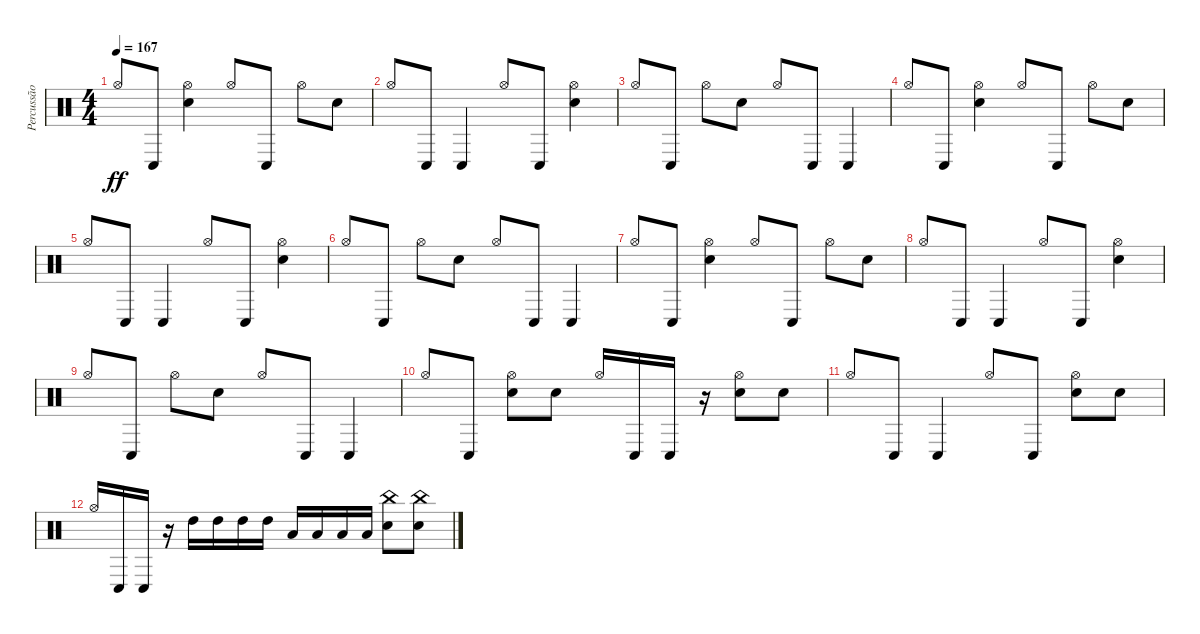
\track ("Percussão" "Percussão") {instrument percussion}
\staff {score}
\articulation defaults
\ts (4 4)
\tempo 167
\clef neutral
\ks c "Hi-Hat (open)".8{dy ff} "Conga low (hit)".8
("Electric Snare (hit)" "Hi-Hat (open)").4 "Hi-Hat (open)".8 "Conga low (hit)".8 "Hi-Hat (open)".8 "Electric Snare (hit)".8 |
"Hi-Hat (open)".8 "Conga low (hit)".8 "Conga low (hit)".4 "Hi-Hat (open)".8 "Conga low (hit)".8 ("Electric Snare (hit)" "Hi-Hat (open)").4 |
"Hi-Hat (open)".8 "Conga low (hit)".8 "Hi-Hat (open)".8 "Electric Snare (hit)".8 "Hi-Hat (open)".8 "Conga low (hit)".8 "Conga low (hit)".4 |
"Hi-Hat (open)".8 "Conga low (hit)".8 ("Electric Snare (hit)" "Hi-Hat (open)").4 "Hi-Hat (open)".8 "Conga low (hit)".8 "Hi-Hat (open)".8 "Electric Snare (hit)".8 |
"Hi-Hat (open)".8 "Conga low (hit)".8 "Conga low (hit)".4 "Hi-Hat (open)".8 "Conga low (hit)".8 ("Electric Snare (hit)" "Hi-Hat (open)").4 |
"Hi-Hat (open)".8 "Conga low (hit)".8 "Hi-Hat (open)".8 "Electric Snare (hit)".8 "Hi-Hat (open)".8 "Conga low (hit)".8 "Conga low (hit)".4 |
"Hi-Hat (open)".8 "Conga low (hit)".8 ("Electric Snare (hit)" "Hi-Hat (open)").4 "Hi-Hat (open)".8 "Conga low (hit)".8 "Hi-Hat (open)".8 "Electric Snare (hit)".8 |
"Hi-Hat (open)".8 "Conga low (hit)".8 "Conga low (hit)".4 "Hi-Hat (open)".8 "Conga low (hit)".8 ("Electric Snare (hit)" "Hi-Hat (open)").4 |
"Hi-Hat (open)".8 "Conga low (hit)".8 "Hi-Hat (open)".8 "Electric Snare (hit)".8 "Hi-Hat (open)".8 "Conga low (hit)".8 "Conga low (hit)".4 |
"Hi-Hat (open)".8 "Conga low (hit)".8 ("Electric Snare (hit)" "Hi-Hat (open)").8 "Electric Snare (hit)".8 "Hi-Hat (open)".16 "Conga low (hit)".16 "Conga low (hit)".16 r.16 ("Electric Snare (hit)" "Hi-Hat (open)").8 "Electric Snare (hit)".8 |
"Hi-Hat (open)".8 "Conga low (hit)".8 "Conga low (hit)".4 "Hi-Hat (open)".8 "Conga low (hit)".8 ("Electric Snare (hit)" "Hi-Hat (open)").8 "Electric Snare (hit)".8 |
"Hi-Hat (open)".16 "Conga low (hit)".16 "Conga low (hit)".16 r.16 "High Tom (hit)".16 "High Tom (hit)".16 "High Tom (hit)".16 "High Tom (hit)".16 "Low Tom (hit)".16 "Low Tom (hit)".16 "Low Tom (hit)".16 "Low Tom (hit)".16 ("Electric Snare (hit)" "China (hit)").8 ("Electric Snare (hit)" "China (hit)").8
